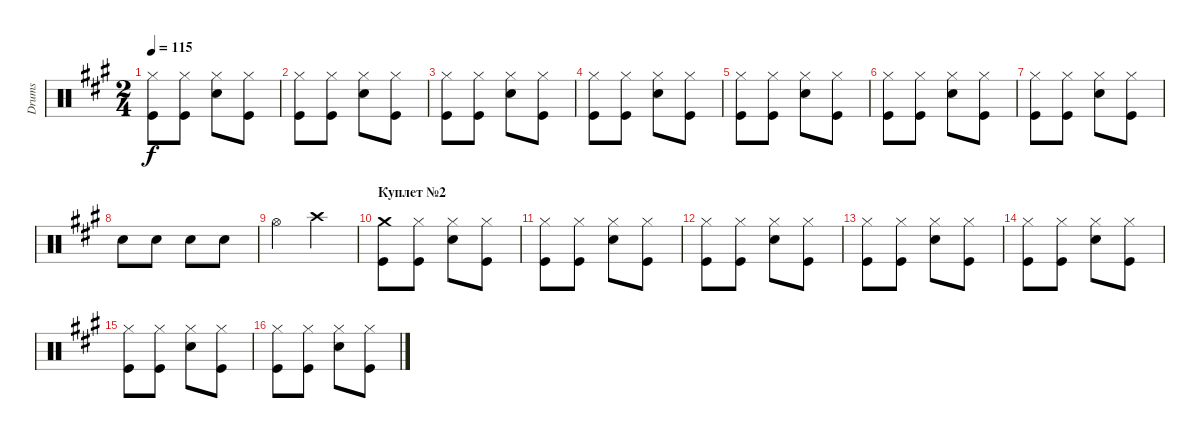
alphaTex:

\track ("Drums" "Drums") {instrument percussion}
\staff {score}
\articulation defaults
\ts (2 4)
\tempo 115
\clef neutral
\ks f#minor
("Hi-Hat (closed)" "Kick (hit)").8{dy f} ("Hi-Hat (closed)" "Kick (hit)").8 ("Hi-Hat (closed)" "Electric Snare (hit)").8 ("Hi-Hat (closed)" "Kick (hit)").8 |
("Hi-Hat (closed)" "Kick (hit)").8 ("Hi-Hat (closed)" "Kick (hit)").8 ("Hi-Hat (closed)" "Electric Snare (hit)").8 ("Hi-Hat (closed)" "Kick (hit)").8 |
("Hi-Hat (closed)" "Kick (hit)").8 ("Hi-Hat (closed)" "Kick (hit)").8 ("Hi-Hat (closed)" "Electric Snare (hit)").8 ("Hi-Hat (closed)" "Kick (hit)").8 |
("Hi-Hat (closed)" "Kick (hit)").8 ("Hi-Hat (closed)" "Kick (hit)").8 ("Hi-Hat (closed)" "Electric Snare (hit)").8 ("Hi-Hat (closed)" "Kick (hit)").8 |
("Hi-Hat (closed)" "Kick (hit)").8 ("Hi-Hat (closed)" "Kick (hit)").8 ("Hi-Hat (closed)" "Electric Snare (hit)").8 ("Hi-Hat (closed)" "Kick (hit)").8 |
("Hi-Hat (closed)" "Kick (hit)").8 ("Hi-Hat (closed)" "Kick (hit)").8 ("Hi-Hat (closed)" "Electric Snare (hit)").8 ("Hi-Hat (closed)" "Kick (hit)").8 |
("Hi-Hat (closed)" "Kick (hit)").8 ("Hi-Hat (closed)" "Kick (hit)").8 ("Hi-Hat (closed)" "Electric Snare (hit)").8 ("Hi-Hat (closed)" "Kick (hit)").8 |
"Electric Snare (hit)".8 "Electric Snare (hit)".8 "Electric Snare (hit)".8 "Electric Snare (hit)".8 |
"Hi-Hat (open)".4 "Crash high (hit)".4 |
\section ("" "Куплет №2")
("Crash medium (hit)" "Kick (hit)").8 ("Hi-Hat (closed)" "Kick (hit)").8 ("Hi-Hat (closed)" "Electric Snare (hit)").8 ("Hi-Hat (closed)" "Kick (hit)").8 |
("Hi-Hat (closed)" "Kick (hit)").8 ("Hi-Hat (closed)" "Kick (hit)").8 ("Hi-Hat (closed)" "Electric Snare (hit)").8 ("Hi-Hat (closed)" "Kick (hit)").8 |
("Hi-Hat (closed)" "Kick (hit)").8 ("Hi-Hat (closed)" "Kick (hit)").8 ("Hi-Hat (closed)" "Electric Snare (hit)").8 ("Hi-Hat (closed)" "Kick (hit)").8 |
("Hi-Hat (closed)" "Kick (hit)").8 ("Hi-Hat (closed)" "Kick (hit)").8 ("Hi-Hat (closed)" "Electric Snare (hit)").8 ("Hi-Hat (closed)" "Kick (hit)").8 |
("Hi-Hat (closed)" "Kick (hit)").8 ("Hi-Hat (closed)" "Kick (hit)").8 ("Hi-Hat (closed)" "Electric Snare (hit)").8 ("Hi-Hat (closed)" "Kick (hit)").8 |
("Hi-Hat (closed)" "Kick (hit)").8 ("Hi-Hat (closed)" "Kick (hit)").8 ("Hi-Hat (closed)" "Electric Snare (hit)").8 ("Hi-Hat (closed)" "Kick (hit)").8 |
("Hi-Hat (closed)" "Kick (hit)").8 ("Hi-Hat (closed)" "Kick (hit)").8 ("Hi-Hat (closed)" "Electric Snare (hit)").8 ("Hi-Hat (closed)" "Kick (hit)").8
